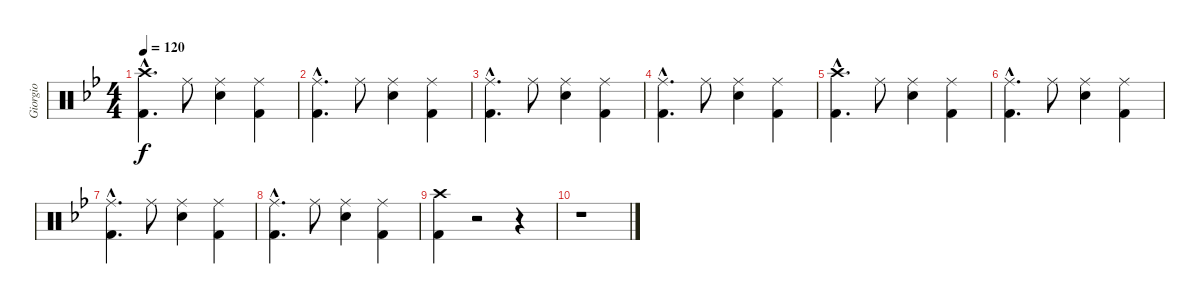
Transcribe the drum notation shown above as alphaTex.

\track ("Giorgio" "Giorgio") {instrument percussion}
\staff {score}
\articulation defaults
\ts (4 4)
\tempo 120
\clef neutral
\ks gminor
("Crash high (hit)"{hac} "Kick (hit) 2"{hac}).4{d dy f} "Ride (middle)".8 ("Ride (middle)" "Snare (hit) 2").4 ("Ride (middle)" "Kick (hit) 2").4 |
("Ride (middle)"{hac} "Kick (hit) 2"{hac}).4{d} "Ride (middle)".8 ("Ride (middle)" "Snare (hit) 2").4 ("Kick (hit) 2" "Ride (middle)").4 |
("Ride (middle)"{hac} "Kick (hit) 2"{hac}).4{d} "Ride (middle)".8 ("Ride (middle)" "Snare (hit) 2").4 ("Kick (hit) 2" "Ride (middle)").4 |
("Ride (middle)"{hac} "Kick (hit) 2"{hac}).4{d} "Ride (middle)".8 ("Ride (middle)" "Snare (hit) 2").4 ("Kick (hit) 2" "Ride (middle)").4 |
("Crash high (hit)"{hac} "Kick (hit) 2"{hac}).4{d} "Ride (middle)".8 ("Ride (middle)" "Snare (hit) 2").4 ("Ride (middle)" "Kick (hit) 2").4 |
("Ride (middle)"{hac} "Kick (hit) 2"{hac}).4{d} "Ride (middle)".8 ("Ride (middle)" "Snare (hit) 2").4 ("Kick (hit) 2" "Ride (middle)").4 |
("Ride (middle)"{hac} "Kick (hit) 2"{hac}).4{d} "Ride (middle)".8 ("Ride (middle)" "Snare (hit) 2").4 ("Kick (hit) 2" "Ride (middle)").4 |
("Ride (middle)"{hac} "Kick (hit) 2"{hac}).4{d} "Ride (middle)".8 ("Ride (middle)" "Snare (hit) 2").4 ("Kick (hit) 2" "Ride (middle)").4 |
("Crash high (hit)" "Kick (hit) 2").4 r.2 r.4 |
r.1
